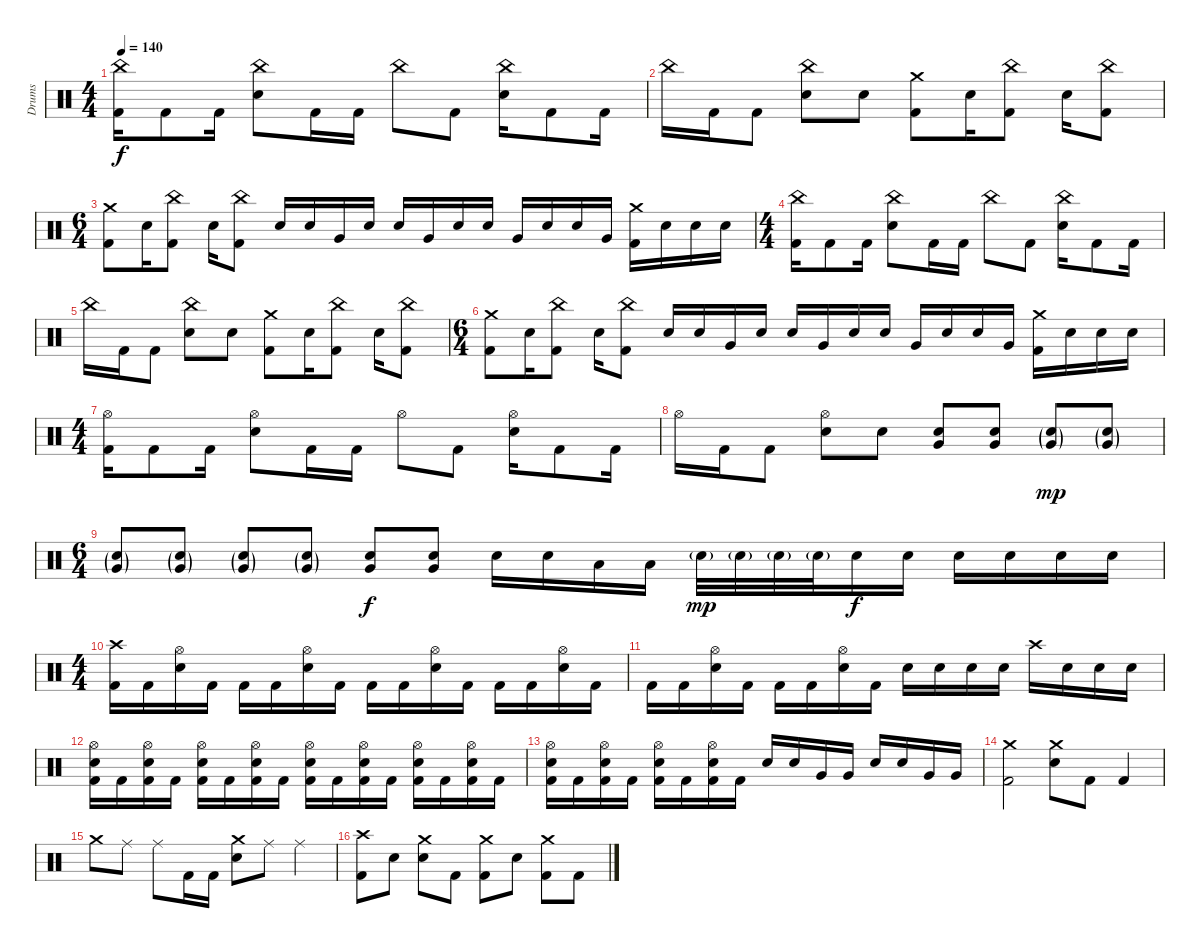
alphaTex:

\track ("Drums" "Drums") {instrument percussion}
\staff {score}
\articulation defaults
\ts (4 4)
\tempo 140
\clef neutral
\ks c
("China (hit)" "Kick (hit) 2").16{dy f} "Kick (hit) 2".8 "Kick (hit) 2".16 ("China (hit)" "Electric Snare (hit)").8 "Kick (hit) 2".16 "Kick (hit) 2".16 "China (hit)".8 "Kick (hit) 2".8 ("China (hit)" "Electric Snare (hit)").16 "Kick (hit) 2".8 "Kick (hit) 2".16 |
"China (hit)".16 "Kick (hit) 2".16 "Kick (hit) 2".8 ("China (hit)" "Electric Snare (hit)").8 "Electric Snare (hit)".8 ("Crash medium (hit)" "Kick (hit) 2").8 "Electric Snare (hit)".16 ("China (hit)" "Kick (hit) 2").8 "Electric Snare (hit)".16 ("China (hit)" "Kick (hit) 2").8 |
\ts (6 4)
("Crash medium (hit)" "Kick (hit) 2").8 "Electric Snare (hit)".16 ("China (hit)" "Kick (hit) 2").8 "Electric Snare (hit)".16 ("China (hit)" "Kick (hit) 2").8 "Electric Snare (hit)".16 "Electric Snare (hit)".16 "Very Low Tom (hit)".16 "Electric Snare (hit)".16 "Electric Snare (hit)".16 "Very Low Tom (hit)".16 "Electric Snare (hit)".16 "Electric Snare (hit)".16 "Very Low Tom (hit)".16 "Electric Snare (hit)".16 "Electric Snare (hit)".16 "Very Low Tom (hit)".16 ("Crash medium (hit)" "Kick (hit) 2").16 "Electric Snare (hit)".16 "Electric Snare (hit)".16 "Electric Snare (hit)".16 |
\ts (4 4)
("China (hit)" "Kick (hit) 2").16 "Kick (hit) 2".8 "Kick (hit) 2".16 ("China (hit)" "Electric Snare (hit)").8 "Kick (hit) 2".16 "Kick (hit) 2".16 "China (hit)".8 "Kick (hit) 2".8 ("China (hit)" "Electric Snare (hit)").16 "Kick (hit) 2".8 "Kick (hit) 2".16 |
"China (hit)".16 "Kick (hit) 2".16 "Kick (hit) 2".8 ("China (hit)" "Electric Snare (hit)").8 "Electric Snare (hit)".8 ("Crash medium (hit)" "Kick (hit) 2").8 "Electric Snare (hit)".16 ("China (hit)" "Kick (hit) 2").8 "Electric Snare (hit)".16 ("China (hit)" "Kick (hit) 2").8 |
\ts (6 4)
("Crash medium (hit)" "Kick (hit) 2").8 "Electric Snare (hit)".16 ("China (hit)" "Kick (hit) 2").8 "Electric Snare (hit)".16 ("China (hit)" "Kick (hit) 2").8 "Electric Snare (hit)".16 "Electric Snare (hit)".16 "Very Low Tom (hit)".16 "Electric Snare (hit)".16 "Electric Snare (hit)".16 "Very Low Tom (hit)".16 "Electric Snare (hit)".16 "Electric Snare (hit)".16 "Very Low Tom (hit)".16 "Electric Snare (hit)".16 "Electric Snare (hit)".16 "Very Low Tom (hit)".16 ("Crash medium (hit)" "Kick (hit) 2").16 "Electric Snare (hit)".16 "Electric Snare (hit)".16 "Electric Snare (hit)".16 |
\ts (4 4)
("Hi-Hat (open)" "Kick (hit) 2").16 "Kick (hit) 2".8 "Kick (hit) 2".16 ("Hi-Hat (open)" "Electric Snare (hit)").8 "Kick (hit) 2".16 "Kick (hit) 2".16 "Hi-Hat (open)".8 "Kick (hit) 2".8 ("Hi-Hat (open)" "Electric Snare (hit)").16 "Kick (hit) 2".8 "Kick (hit) 2".16 |
"Hi-Hat (open)".16 "Kick (hit) 2".16 "Kick (hit) 2".8 ("Hi-Hat (open)" "Electric Snare (hit)").8 "Electric Snare (hit)".8 ("Very Low Tom (hit)" "Electric Snare (hit)").8 ("Very Low Tom (hit)" "Electric Snare (hit)").8 ("Very Low Tom (hit)"{g} "Electric Snare (hit)"{g}).8{dy mp} ("Very Low Tom (hit)"{g} "Electric Snare (hit)"{g}).8 |
\ts (6 4)
("Very Low Tom (hit)"{g} "Electric Snare (hit)"{g}).8 ("Very Low Tom (hit)"{g} "Electric Snare (hit)"{g}).8 ("Very Low Tom (hit)"{g} "Electric Snare (hit)"{g}).8 ("Very Low Tom (hit)"{g} "Electric Snare (hit)"{g}).8 ("Very Low Tom (hit)" "Electric Snare (hit)").8{dy f} ("Very Low Tom (hit)" "Electric Snare (hit)").8 "Electric Snare (hit)".16 "Electric Snare (hit)".16 "Low Tom (hit)".16 "Low Tom (hit)".16 "Electric Snare (hit)"{g}.32{dy mp} "Electric Snare (hit)"{g}.32 "Electric Snare (hit)"{g}.32 "Electric Snare (hit)"{g}.32 "Electric Snare (hit)".16{dy f} "Electric Snare (hit)".16 "Electric Snare (hit)".16 "Electric Snare (hit)".16 "Electric Snare (hit)".16 "Electric Snare (hit)".16 |
\ts (4 4)
("Crash high (hit)" "Kick (hit) 2").16 "Kick (hit) 2".16 ("Hi-Hat (open)" "Electric Snare (hit)").16 "Kick (hit) 2".16 "Kick (hit) 2".16 "Kick (hit) 2".16 ("Hi-Hat (open)" "Electric Snare (hit)").16 "Kick (hit) 2".16 "Kick (hit) 2".16 "Kick (hit) 2".16 ("Hi-Hat (open)" "Electric Snare (hit)").16 "Kick (hit) 2".16 "Kick (hit) 2".16 "Kick (hit) 2".16 ("Hi-Hat (open)" "Electric Snare (hit)").16 "Kick (hit) 2".16 |
"Kick (hit) 2".16 "Kick (hit) 2".16 ("Hi-Hat (open)" "Electric Snare (hit)").16 "Kick (hit) 2".16 "Kick (hit) 2".16 "Kick (hit) 2".16 ("Hi-Hat (open)" "Electric Snare (hit)").16 "Kick (hit) 2".16 "Electric Snare (hit)".16 "Electric Snare (hit)".16 "Electric Snare (hit)".16 "Electric Snare (hit)".16 "Crash high (hit)".16 "Electric Snare (hit)".16 "Electric Snare (hit)".16 "Electric Snare (hit)".16 |
("Hi-Hat (open)" "Electric Snare (hit)" "Kick (hit) 2").16 "Kick (hit) 2".16 ("Hi-Hat (open)" "Electric Snare (hit)" "Kick (hit) 2").16 "Kick (hit) 2".16 ("Hi-Hat (open)" "Electric Snare (hit)" "Kick (hit) 2").16 "Kick (hit) 2".16 ("Hi-Hat (open)" "Electric Snare (hit)" "Kick (hit) 2").16 "Kick (hit) 2".16 ("Hi-Hat (open)" "Electric Snare (hit)" "Kick (hit) 2").16 "Kick (hit) 2".16 ("Hi-Hat (open)" "Electric Snare (hit)" "Kick (hit) 2").16 "Kick (hit) 2".16 ("Hi-Hat (open)" "Electric Snare (hit)" "Kick (hit) 2").16 "Kick (hit) 2".16 ("Hi-Hat (open)" "Electric Snare (hit)" "Kick (hit) 2").16 "Kick (hit) 2".16 |
("Hi-Hat (open)" "Electric Snare (hit)" "Kick (hit) 2").16 "Kick (hit) 2".16 ("Hi-Hat (open)" "Electric Snare (hit)" "Kick (hit) 2").16 "Kick (hit) 2".16 ("Hi-Hat (open)" "Electric Snare (hit)" "Kick (hit) 2").16 "Kick (hit) 2".16 ("Hi-Hat (open)" "Electric Snare (hit)" "Kick (hit) 2").16 "Kick (hit) 2".16 "Electric Snare (hit)".16 "Electric Snare (hit)".16 "Very Low Tom (hit)".16 "Very Low Tom (hit)".16 "Electric Snare (hit)".16 "Electric Snare (hit)".16 "Very Low Tom (hit)".16 "Very Low Tom (hit)".16 |
("Crash medium (hit)" "Kick (hit) 2").2 ("Crash medium (hit)" "Electric Snare (hit)").8 "Kick (hit) 2".8 "Kick (hit) 2".4 |
"Crash medium (hit)".8 "Ride (middle)".8 "Ride (middle)".8 "Kick (hit) 2".16 "Kick (hit) 2".16 ("Crash medium (hit)" "Electric Snare (hit)").8 "Ride (middle)".8 "Ride (middle)".4 |
("Crash high (hit)" "Kick (hit) 2").8 "Electric Snare (hit)".8 ("Crash medium (hit)" "Electric Snare (hit)").8 "Kick (hit) 2".8 ("Crash medium (hit)" "Kick (hit) 2").8 "Electric Snare (hit)".8 ("Crash medium (hit)" "Kick (hit) 2").8 "Kick (hit) 2".8
